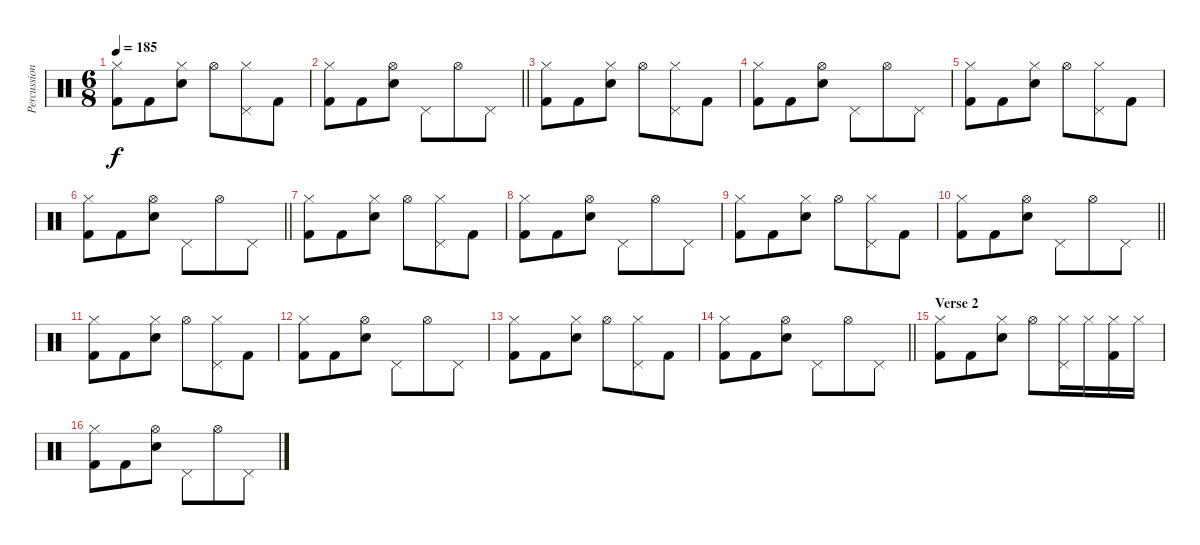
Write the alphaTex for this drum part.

\track ("Percussion" "Percussion") {instrument percussion}
\staff {score}
\articulation defaults
\ts (6 8)
\tempo 185
\clef neutral
\ks c
("Hi-Hat (closed)" "Kick (hit) 2").8{dy f} "Kick (hit) 2".8 ("Hi-Hat (closed)" "Snare (hit) 2").8 "Hi-Hat (open)".8 ("Hi-Hat (closed)" "Pedal Hi-Hat (hit)").8 "Kick (hit) 2".8 |
\barLineRight lightlight
("Hi-Hat (closed)" "Kick (hit) 2").8 "Kick (hit) 2".8 ("Hi-Hat (open)" "Snare (hit) 2").8 "Pedal Hi-Hat (hit)".8 "Hi-Hat (open)".8 "Pedal Hi-Hat (hit)".8 |
("Hi-Hat (closed)" "Kick (hit) 2").8 "Kick (hit) 2".8 ("Hi-Hat (closed)" "Snare (hit) 2").8 "Hi-Hat (open)".8 ("Hi-Hat (closed)" "Pedal Hi-Hat (hit)").8 "Kick (hit) 2".8 |
("Hi-Hat (closed)" "Kick (hit) 2").8 "Kick (hit) 2".8 ("Hi-Hat (open)" "Snare (hit) 2").8 "Pedal Hi-Hat (hit)".8 "Hi-Hat (open)".8 "Pedal Hi-Hat (hit)".8 |
("Hi-Hat (closed)" "Kick (hit) 2").8 "Kick (hit) 2".8 ("Hi-Hat (closed)" "Snare (hit) 2").8 "Hi-Hat (open)".8 ("Hi-Hat (closed)" "Pedal Hi-Hat (hit)").8 "Kick (hit) 2".8 |
\barLineRight lightlight
("Hi-Hat (closed)" "Kick (hit) 2").8 "Kick (hit) 2".8 ("Hi-Hat (open)" "Snare (hit) 2").8 "Pedal Hi-Hat (hit)".8 "Hi-Hat (open)".8 "Pedal Hi-Hat (hit)".8 |
("Hi-Hat (closed)" "Kick (hit) 2").8 "Kick (hit) 2".8 ("Hi-Hat (closed)" "Snare (hit) 2").8 "Hi-Hat (open)".8 ("Hi-Hat (closed)" "Pedal Hi-Hat (hit)").8 "Kick (hit) 2".8 |
("Hi-Hat (closed)" "Kick (hit) 2").8 "Kick (hit) 2".8 ("Hi-Hat (open)" "Snare (hit) 2").8 "Pedal Hi-Hat (hit)".8 "Hi-Hat (open)".8 "Pedal Hi-Hat (hit)".8 |
("Hi-Hat (closed)" "Kick (hit) 2").8 "Kick (hit) 2".8 ("Hi-Hat (closed)" "Snare (hit) 2").8 "Hi-Hat (open)".8 ("Hi-Hat (closed)" "Pedal Hi-Hat (hit)").8 "Kick (hit) 2".8 |
\barLineRight lightlight
("Hi-Hat (closed)" "Kick (hit) 2").8 "Kick (hit) 2".8 ("Hi-Hat (open)" "Snare (hit) 2").8 "Pedal Hi-Hat (hit)".8 "Hi-Hat (open)".8 "Pedal Hi-Hat (hit)".8 |
("Hi-Hat (closed)" "Kick (hit) 2").8 "Kick (hit) 2".8 ("Hi-Hat (closed)" "Snare (hit) 2").8 "Hi-Hat (open)".8 ("Hi-Hat (closed)" "Pedal Hi-Hat (hit)").8 "Kick (hit) 2".8 |
("Hi-Hat (closed)" "Kick (hit) 2").8 "Kick (hit) 2".8 ("Hi-Hat (open)" "Snare (hit) 2").8 "Pedal Hi-Hat (hit)".8 "Hi-Hat (open)".8 "Pedal Hi-Hat (hit)".8 |
("Hi-Hat (closed)" "Kick (hit) 2").8 "Kick (hit) 2".8 ("Hi-Hat (closed)" "Snare (hit) 2").8 "Hi-Hat (open)".8 ("Hi-Hat (closed)" "Pedal Hi-Hat (hit)").8 "Kick (hit) 2".8 |
\barLineRight lightlight
("Hi-Hat (closed)" "Kick (hit) 2").8 "Kick (hit) 2".8 ("Hi-Hat (open)" "Snare (hit) 2").8 "Pedal Hi-Hat (hit)".8 "Hi-Hat (open)".8 "Pedal Hi-Hat (hit)".8 |
\section ("" "Verse 2")
("Hi-Hat (closed)" "Kick (hit) 2").8 "Kick (hit) 2".8 ("Hi-Hat (closed)" "Snare (hit) 2").8 "Hi-Hat (open)".8 ("Hi-Hat (closed)" "Pedal Hi-Hat (hit)").16 "Hi-Hat (closed)".16 ("Hi-Hat (closed)" "Kick (hit) 2").16 "Hi-Hat (closed)".16 |
("Hi-Hat (closed)" "Kick (hit) 2").8 "Kick (hit) 2".8 ("Hi-Hat (open)" "Snare (hit) 2").8 "Pedal Hi-Hat (hit)".8 "Hi-Hat (open)".8 "Pedal Hi-Hat (hit)".8
